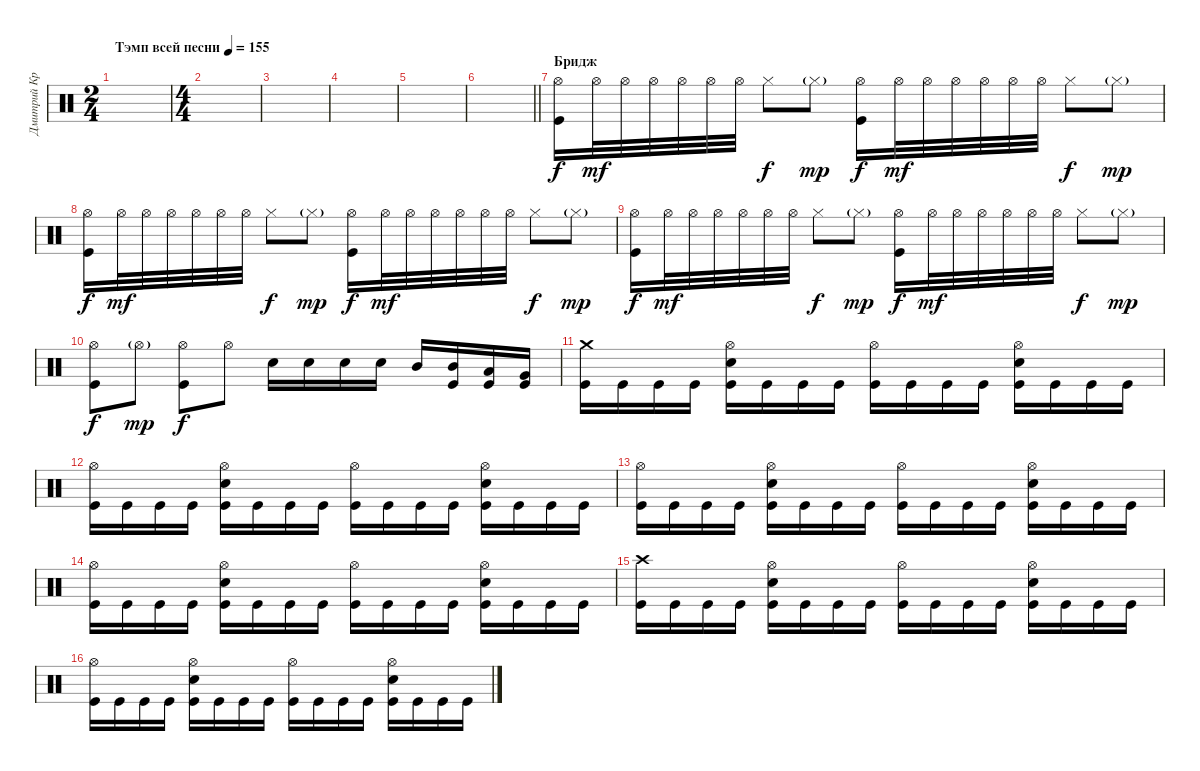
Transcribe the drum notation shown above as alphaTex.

\track ("Дмитрий Кривенков" "Дмитрий Кр") {instrument percussion}
\staff {score}
\articulation defaults
\ts (2 4)
\tempo (155 "Тэмп всей песни")
\clef neutral
\ks c
|
\ts (4 4)
|
|
|
|
\barLineRight lightlight
|
\section ("" "Бридж")
("Hi-Hat (open)" "Kick (hit)").16 "Hi-Hat (open)".32{dy mf} "Hi-Hat (open)".32 "Hi-Hat (open)".32 "Hi-Hat (open)".32 "Hi-Hat (open)".32 "Hi-Hat (open)".32 "Hi-Hat (closed)".8{dy f} "Hi-Hat (closed)"{g}.8{dy mp} ("Hi-Hat (open)" "Kick (hit)").16{dy f} "Hi-Hat (open)".32{dy mf} "Hi-Hat (open)".32 "Hi-Hat (open)".32 "Hi-Hat (open)".32 "Hi-Hat (open)".32 "Hi-Hat (open)".32 "Hi-Hat (closed)".8{dy f} "Hi-Hat (closed)"{g}.8{dy mp} |
("Hi-Hat (open)" "Kick (hit)").16{dy f} "Hi-Hat (open)".32{dy mf} "Hi-Hat (open)".32 "Hi-Hat (open)".32 "Hi-Hat (open)".32 "Hi-Hat (open)".32 "Hi-Hat (open)".32 "Hi-Hat (closed)".8{dy f} "Hi-Hat (closed)"{g}.8{dy mp} ("Hi-Hat (open)" "Kick (hit)").16{dy f} "Hi-Hat (open)".32{dy mf} "Hi-Hat (open)".32 "Hi-Hat (open)".32 "Hi-Hat (open)".32 "Hi-Hat (open)".32 "Hi-Hat (open)".32 "Hi-Hat (closed)".8{dy f} "Hi-Hat (closed)"{g}.8{dy mp} |
("Hi-Hat (open)" "Kick (hit)").16{dy f} "Hi-Hat (open)".32{dy mf} "Hi-Hat (open)".32 "Hi-Hat (open)".32 "Hi-Hat (open)".32 "Hi-Hat (open)".32 "Hi-Hat (open)".32 "Hi-Hat (closed)".8{dy f} "Hi-Hat (closed)"{g}.8{dy mp} ("Hi-Hat (open)" "Kick (hit)").16{dy f} "Hi-Hat (open)".32{dy mf} "Hi-Hat (open)".32 "Hi-Hat (open)".32 "Hi-Hat (open)".32 "Hi-Hat (open)".32 "Hi-Hat (open)".32 "Hi-Hat (closed)".8{dy f} "Hi-Hat (closed)"{g}.8{dy mp} |
("Hi-Hat (open)" "Kick (hit)").8{dy f} "Hi-Hat (open)"{g}.8{dy mp} ("Hi-Hat (open)" "Kick (hit)").8{dy f} "Hi-Hat (open)".8 "Snare (hit) 2".16 "Snare (hit) 2".16 "Snare (hit) 2".16 "Snare (hit) 2".16 "Mid Tom (hit)".16 ("Mid Tom (hit)" "Kick (hit)").16 ("Low Tom (hit)" "Kick (hit)").16 ("Very Low Tom (hit)" "Kick (hit)").16 |
("Crash medium (hit)" "Kick (hit)").16 "Kick (hit)".16 "Kick (hit)".16 "Kick (hit)".16 ("Hi-Hat (open)" "Snare (hit) 2" "Kick (hit)").16 "Kick (hit)".16 "Kick (hit)".16 "Kick (hit)".16 ("Hi-Hat (open)" "Kick (hit)").16 "Kick (hit)".16 "Kick (hit)".16 "Kick (hit)".16 ("Hi-Hat (open)" "Snare (hit) 2" "Kick (hit)").16 "Kick (hit)".16 "Kick (hit)".16 "Kick (hit)".16 |
("Hi-Hat (open)" "Kick (hit)").16 "Kick (hit)".16 "Kick (hit)".16 "Kick (hit)".16 ("Hi-Hat (open)" "Snare (hit) 2" "Kick (hit)").16 "Kick (hit)".16 "Kick (hit)".16 "Kick (hit)".16 ("Hi-Hat (open)" "Kick (hit)").16 "Kick (hit)".16 "Kick (hit)".16 "Kick (hit)".16 ("Hi-Hat (open)" "Snare (hit) 2" "Kick (hit)").16 "Kick (hit)".16 "Kick (hit)".16 "Kick (hit)".16 |
("Hi-Hat (open)" "Kick (hit)").16 "Kick (hit)".16 "Kick (hit)".16 "Kick (hit)".16 ("Hi-Hat (open)" "Snare (hit) 2" "Kick (hit)").16 "Kick (hit)".16 "Kick (hit)".16 "Kick (hit)".16 ("Hi-Hat (open)" "Kick (hit)").16 "Kick (hit)".16 "Kick (hit)".16 "Kick (hit)".16 ("Hi-Hat (open)" "Snare (hit) 2" "Kick (hit)").16 "Kick (hit)".16 "Kick (hit)".16 "Kick (hit)".16 |
("Hi-Hat (open)" "Kick (hit)").16 "Kick (hit)".16 "Kick (hit)".16 "Kick (hit)".16 ("Hi-Hat (open)" "Snare (hit) 2" "Kick (hit)").16 "Kick (hit)".16 "Kick (hit)".16 "Kick (hit)".16 ("Hi-Hat (open)" "Kick (hit)").16 "Kick (hit)".16 "Kick (hit)".16 "Kick (hit)".16 ("Hi-Hat (open)" "Snare (hit) 2" "Kick (hit)").16 "Kick (hit)".16 "Kick (hit)".16 "Kick (hit)".16 |
("Crash high (hit)" "Kick (hit)").16 "Kick (hit)".16 "Kick (hit)".16 "Kick (hit)".16 ("Hi-Hat (open)" "Snare (hit) 2" "Kick (hit)").16 "Kick (hit)".16 "Kick (hit)".16 "Kick (hit)".16 ("Hi-Hat (open)" "Kick (hit)").16 "Kick (hit)".16 "Kick (hit)".16 "Kick (hit)".16 ("Hi-Hat (open)" "Snare (hit) 2" "Kick (hit)").16 "Kick (hit)".16 "Kick (hit)".16 "Kick (hit)".16 |
("Hi-Hat (open)" "Kick (hit)").16 "Kick (hit)".16 "Kick (hit)".16 "Kick (hit)".16 ("Hi-Hat (open)" "Snare (hit) 2" "Kick (hit)").16 "Kick (hit)".16 "Kick (hit)".16 "Kick (hit)".16 ("Hi-Hat (open)" "Kick (hit)").16 "Kick (hit)".16 "Kick (hit)".16 "Kick (hit)".16 ("Hi-Hat (open)" "Snare (hit) 2" "Kick (hit)").16 "Kick (hit)".16 "Kick (hit)".16 "Kick (hit)".16
